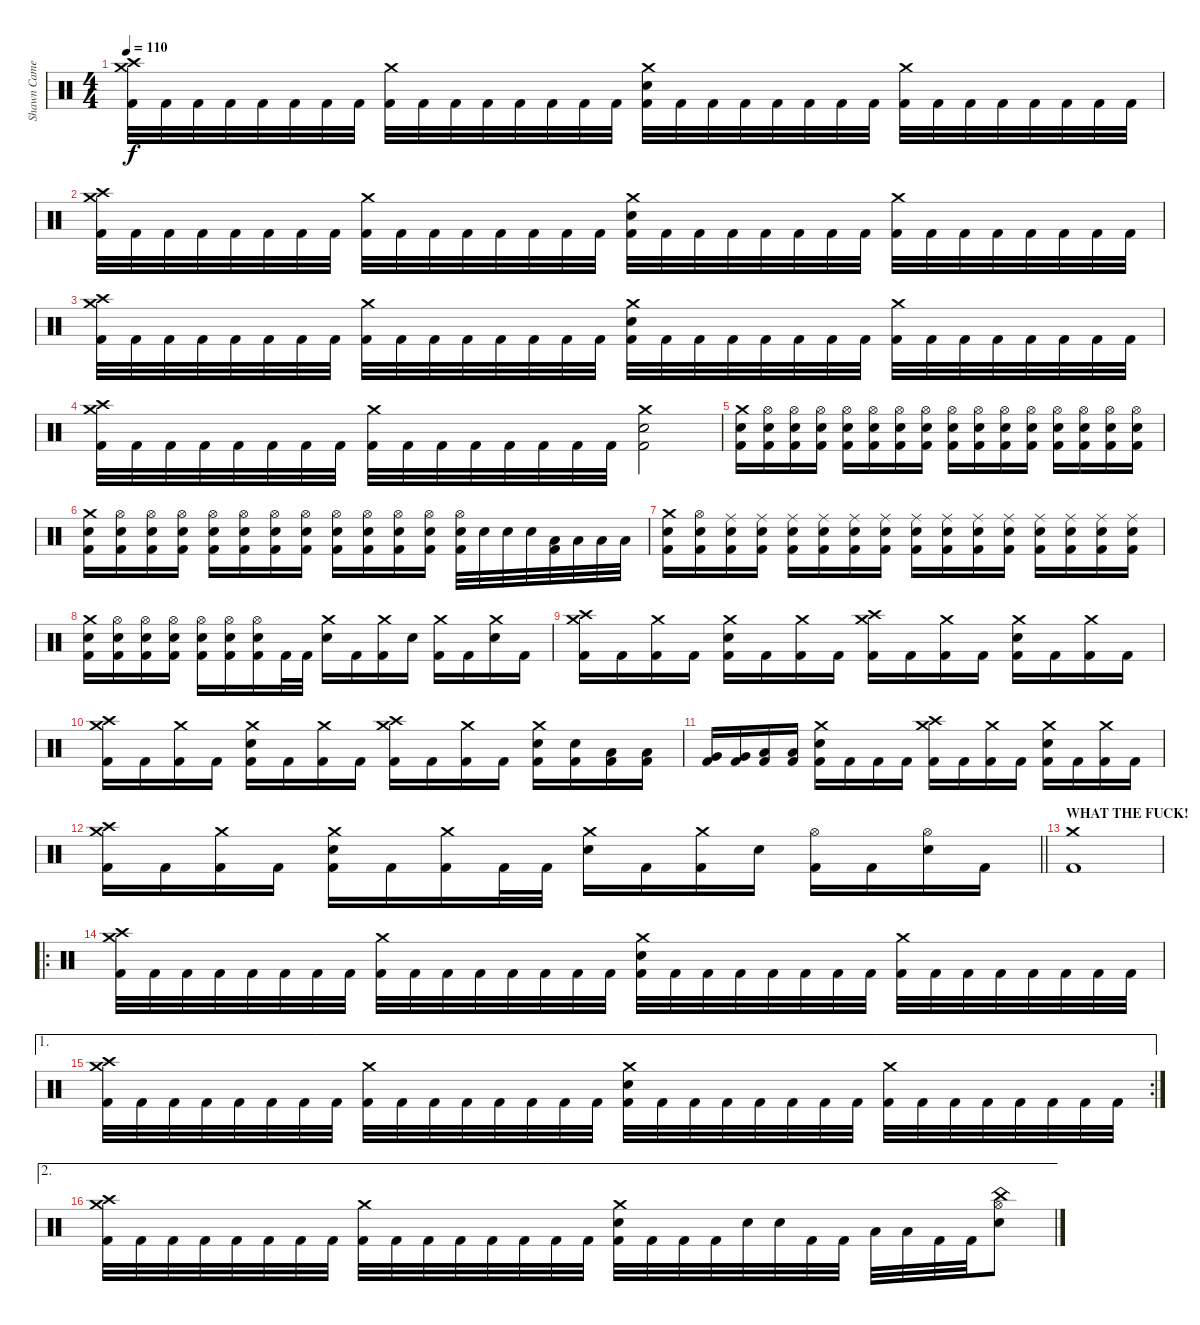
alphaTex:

\track ("Shawn Cameron" "Shawn Came") {instrument percussion}
\staff {score}
\articulation defaults
\ts (4 4)
\tempo 110
\clef neutral
\ks c
("Crash medium (hit)" "Crash high (hit)" "Kick (hit) 2").32{dy f} "Kick (hit) 2".32 "Kick (hit) 2".32 "Kick (hit) 2".32 "Kick (hit) 2".32 "Kick (hit) 2".32 "Kick (hit) 2".32 "Kick (hit) 2".32 ("Crash medium (hit)" "Kick (hit) 2").32 "Kick (hit) 2".32 "Kick (hit) 2".32 "Kick (hit) 2".32 "Kick (hit) 2".32 "Kick (hit) 2".32 "Kick (hit) 2".32 "Kick (hit) 2".32 ("Crash medium (hit)" "Electric Snare (hit)" "Kick (hit) 2").32 "Kick (hit) 2".32 "Kick (hit) 2".32 "Kick (hit) 2".32 "Kick (hit) 2".32 "Kick (hit) 2".32 "Kick (hit) 2".32 "Kick (hit) 2".32 ("Crash medium (hit)" "Kick (hit) 2").32 "Kick (hit) 2".32 "Kick (hit) 2".32 "Kick (hit) 2".32 "Kick (hit) 2".32 "Kick (hit) 2".32 "Kick (hit) 2".32 "Kick (hit) 2".32 |
("Crash medium (hit)" "Crash high (hit)" "Kick (hit) 2").32 "Kick (hit) 2".32 "Kick (hit) 2".32 "Kick (hit) 2".32 "Kick (hit) 2".32 "Kick (hit) 2".32 "Kick (hit) 2".32 "Kick (hit) 2".32 ("Crash medium (hit)" "Kick (hit) 2").32 "Kick (hit) 2".32 "Kick (hit) 2".32 "Kick (hit) 2".32 "Kick (hit) 2".32 "Kick (hit) 2".32 "Kick (hit) 2".32 "Kick (hit) 2".32 ("Crash medium (hit)" "Electric Snare (hit)" "Kick (hit) 2").32 "Kick (hit) 2".32 "Kick (hit) 2".32 "Kick (hit) 2".32 "Kick (hit) 2".32 "Kick (hit) 2".32 "Kick (hit) 2".32 "Kick (hit) 2".32 ("Crash medium (hit)" "Kick (hit) 2").32 "Kick (hit) 2".32 "Kick (hit) 2".32 "Kick (hit) 2".32 "Kick (hit) 2".32 "Kick (hit) 2".32 "Kick (hit) 2".32 "Kick (hit) 2".32 |
("Crash medium (hit)" "Crash high (hit)" "Kick (hit) 2").32 "Kick (hit) 2".32 "Kick (hit) 2".32 "Kick (hit) 2".32 "Kick (hit) 2".32 "Kick (hit) 2".32 "Kick (hit) 2".32 "Kick (hit) 2".32 ("Crash medium (hit)" "Kick (hit) 2").32 "Kick (hit) 2".32 "Kick (hit) 2".32 "Kick (hit) 2".32 "Kick (hit) 2".32 "Kick (hit) 2".32 "Kick (hit) 2".32 "Kick (hit) 2".32 ("Crash medium (hit)" "Electric Snare (hit)" "Kick (hit) 2").32 "Kick (hit) 2".32 "Kick (hit) 2".32 "Kick (hit) 2".32 "Kick (hit) 2".32 "Kick (hit) 2".32 "Kick (hit) 2".32 "Kick (hit) 2".32 ("Crash medium (hit)" "Kick (hit) 2").32 "Kick (hit) 2".32 "Kick (hit) 2".32 "Kick (hit) 2".32 "Kick (hit) 2".32 "Kick (hit) 2".32 "Kick (hit) 2".32 "Kick (hit) 2".32 |
("Crash medium (hit)" "Crash high (hit)" "Kick (hit) 2").32 "Kick (hit) 2".32 "Kick (hit) 2".32 "Kick (hit) 2".32 "Kick (hit) 2".32 "Kick (hit) 2".32 "Kick (hit) 2".32 "Kick (hit) 2".32 ("Crash medium (hit)" "Kick (hit) 2").32 "Kick (hit) 2".32 "Kick (hit) 2".32 "Kick (hit) 2".32 "Kick (hit) 2".32 "Kick (hit) 2".32 "Kick (hit) 2".32 "Kick (hit) 2".32 ("Crash medium (hit)" "Electric Snare (hit)" "Kick (hit) 2").2 |
("Crash medium (hit)" "Electric Snare (hit)" "Kick (hit) 2").16 ("Hi-Hat (open)" "Electric Snare (hit)" "Kick (hit) 2").16 ("Hi-Hat (open)" "Electric Snare (hit)" "Kick (hit) 2").16 ("Hi-Hat (open)" "Electric Snare (hit)" "Kick (hit) 2").16 ("Hi-Hat (open)" "Electric Snare (hit)" "Kick (hit) 2").16 ("Hi-Hat (open)" "Electric Snare (hit)" "Kick (hit) 2").16 ("Hi-Hat (open)" "Electric Snare (hit)" "Kick (hit) 2").16 ("Hi-Hat (open)" "Electric Snare (hit)" "Kick (hit) 2").16 ("Hi-Hat (open)" "Electric Snare (hit)" "Kick (hit) 2").16 ("Hi-Hat (open)" "Electric Snare (hit)" "Kick (hit) 2").16 ("Hi-Hat (open)" "Electric Snare (hit)" "Kick (hit) 2").16 ("Hi-Hat (open)" "Electric Snare (hit)" "Kick (hit) 2").16 ("Hi-Hat (open)" "Electric Snare (hit)" "Kick (hit) 2").16 ("Hi-Hat (open)" "Electric Snare (hit)" "Kick (hit) 2").16 ("Hi-Hat (open)" "Electric Snare (hit)" "Kick (hit) 2").16 ("Hi-Hat (open)" "Electric Snare (hit)" "Kick (hit) 2").16 |
("Crash medium (hit)" "Electric Snare (hit)" "Kick (hit) 2").16 ("Hi-Hat (open)" "Electric Snare (hit)" "Kick (hit) 2").16 ("Hi-Hat (open)" "Electric Snare (hit)" "Kick (hit) 2").16 ("Hi-Hat (open)" "Electric Snare (hit)" "Kick (hit) 2").16 ("Hi-Hat (open)" "Electric Snare (hit)" "Kick (hit) 2").16 ("Hi-Hat (open)" "Electric Snare (hit)" "Kick (hit) 2").16 ("Hi-Hat (open)" "Electric Snare (hit)" "Kick (hit) 2").16 ("Hi-Hat (open)" "Electric Snare (hit)" "Kick (hit) 2").16 ("Hi-Hat (open)" "Electric Snare (hit)" "Kick (hit) 2").16 ("Hi-Hat (open)" "Electric Snare (hit)" "Kick (hit) 2").16 ("Hi-Hat (open)" "Electric Snare (hit)" "Kick (hit) 2").16 ("Hi-Hat (open)" "Electric Snare (hit)" "Kick (hit) 2").16 ("Hi-Hat (open)" "Electric Snare (hit)" "Kick (hit) 2").32 "Electric Snare (hit)".32 "Electric Snare (hit)".32 "Electric Snare (hit)".32 ("Low Tom (hit)" "Kick (hit) 2").32 "Low Tom (hit)".32 "Low Tom (hit)".32 "Low Tom (hit)".32 |
("Crash medium (hit)" "Electric Snare (hit)" "Kick (hit) 2").16 ("Hi-Hat (open)" "Electric Snare (hit)" "Kick (hit) 2").16 ("Ride (middle)" "Electric Snare (hit)" "Kick (hit) 2").16 ("Ride (middle)" "Electric Snare (hit)" "Kick (hit) 2").16 ("Ride (middle)" "Electric Snare (hit)" "Kick (hit) 2").16 ("Ride (middle)" "Electric Snare (hit)" "Kick (hit) 2").16 ("Ride (middle)" "Electric Snare (hit)" "Kick (hit) 2").16 ("Ride (middle)" "Electric Snare (hit)" "Kick (hit) 2").16 ("Ride (middle)" "Electric Snare (hit)" "Kick (hit) 2").16 ("Ride (middle)" "Electric Snare (hit)" "Kick (hit) 2").16 ("Ride (middle)" "Electric Snare (hit)" "Kick (hit) 2").16 ("Ride (middle)" "Electric Snare (hit)" "Kick (hit) 2").16 ("Ride (middle)" "Electric Snare (hit)" "Kick (hit) 2").16 ("Ride (middle)" "Electric Snare (hit)" "Kick (hit) 2").16 ("Ride (middle)" "Electric Snare (hit)" "Kick (hit) 2").16 ("Ride (middle)" "Electric Snare (hit)" "Kick (hit) 2").16 |
("Crash medium (hit)" "Electric Snare (hit)" "Kick (hit) 2").16 ("Hi-Hat (open)" "Electric Snare (hit)" "Kick (hit) 2").16 ("Hi-Hat (open)" "Electric Snare (hit)" "Kick (hit) 2").16 ("Hi-Hat (open)" "Electric Snare (hit)" "Kick (hit) 2").16 ("Hi-Hat (open)" "Electric Snare (hit)" "Kick (hit) 2").16 ("Hi-Hat (open)" "Electric Snare (hit)" "Kick (hit) 2").16 ("Hi-Hat (open)" "Electric Snare (hit)" "Kick (hit) 2").16 "Kick (hit) 2".32 "Kick (hit) 2".32 ("Crash medium (hit)" "Electric Snare (hit)").16 "Kick (hit) 2".16 ("Crash medium (hit)" "Kick (hit) 2").16 "Electric Snare (hit)".16 ("Crash medium (hit)" "Kick (hit) 2").16 "Kick (hit) 2".16 ("Crash medium (hit)" "Electric Snare (hit)").16 "Kick (hit) 2".16 |
("Crash medium (hit)" "Crash high (hit)" "Kick (hit) 2").16 "Kick (hit) 2".16 ("Crash medium (hit)" "Kick (hit) 2").16 "Kick (hit) 2".16 ("Crash medium (hit)" "Electric Snare (hit)" "Kick (hit) 2").16 "Kick (hit) 2".16 ("Crash medium (hit)" "Kick (hit) 2").16 "Kick (hit) 2".16 ("Crash medium (hit)" "Crash high (hit)" "Kick (hit) 2").16 "Kick (hit) 2".16 ("Crash medium (hit)" "Kick (hit) 2").16 "Kick (hit) 2".16 ("Crash medium (hit)" "Electric Snare (hit)" "Kick (hit) 2").16 "Kick (hit) 2".16 ("Crash medium (hit)" "Kick (hit) 2").16 "Kick (hit) 2".16 |
("Crash medium (hit)" "Crash high (hit)" "Kick (hit) 2").16 "Kick (hit) 2".16 ("Crash medium (hit)" "Kick (hit) 2").16 "Kick (hit) 2".16 ("Crash medium (hit)" "Electric Snare (hit)" "Kick (hit) 2").16 "Kick (hit) 2".16 ("Crash medium (hit)" "Kick (hit) 2").16 "Kick (hit) 2".16 ("Crash medium (hit)" "Crash high (hit)" "Kick (hit) 2").16 "Kick (hit) 2".16 ("Crash medium (hit)" "Kick (hit) 2").16 "Kick (hit) 2".16 ("Crash medium (hit)" "Electric Snare (hit)" "Kick (hit) 2").16 ("Electric Snare (hit)" "Kick (hit) 2").16 ("Low Tom (hit)" "Kick (hit) 2").16 ("Low Tom (hit)" "Kick (hit) 2").16 |
("Very Low Tom (hit)" "Kick (hit) 2").16 ("Very Low Tom (hit)" "Kick (hit) 2").16 ("Low Floor Tom (hit)" "Kick (hit) 2").16 ("Low Floor Tom (hit)" "Kick (hit) 2").16 ("Crash medium (hit)" "Electric Snare (hit)" "Kick (hit) 2").16 "Kick (hit) 2".16 "Kick (hit) 2".16 "Kick (hit) 2".16 ("Crash medium (hit)" "Crash high (hit)" "Kick (hit) 2").16 "Kick (hit) 2".16 ("Crash medium (hit)" "Kick (hit) 2").16 "Kick (hit) 2".16 ("Crash medium (hit)" "Electric Snare (hit)" "Kick (hit) 2").16 "Kick (hit) 2".16 ("Crash medium (hit)" "Kick (hit) 2").16 "Kick (hit) 2".16 |
\barLineRight lightlight
("Crash medium (hit)" "Crash high (hit)" "Kick (hit) 2").16 "Kick (hit) 2".16 ("Crash medium (hit)" "Kick (hit) 2").16 "Kick (hit) 2".16 ("Crash medium (hit)" "Electric Snare (hit)" "Kick (hit) 2").16 "Kick (hit) 2".16 ("Crash medium (hit)" "Kick (hit) 2").16 "Kick (hit) 2".32 "Kick (hit) 2".32 ("Crash medium (hit)" "Electric Snare (hit)").16 "Kick (hit) 2".16 ("Crash medium (hit)" "Kick (hit) 2").16 "Electric Snare (hit)".16 ("Hi-Hat (open)" "Kick (hit) 2").16 "Kick (hit) 2".16 ("Hi-Hat (open)" "Electric Snare (hit)").16 "Kick (hit) 2".16 |
\section ("" "WHAT THE FUCK!")
("Kick (hit) 2" "Crash medium (hit)").1 |
\ro
("Crash medium (hit)" "Crash high (hit)" "Kick (hit) 2").32 "Kick (hit) 2".32 "Kick (hit) 2".32 "Kick (hit) 2".32 "Kick (hit) 2".32 "Kick (hit) 2".32 "Kick (hit) 2".32 "Kick (hit) 2".32 ("Crash medium (hit)" "Kick (hit) 2").32 "Kick (hit) 2".32 "Kick (hit) 2".32 "Kick (hit) 2".32 "Kick (hit) 2".32 "Kick (hit) 2".32 "Kick (hit) 2".32 "Kick (hit) 2".32 ("Crash medium (hit)" "Electric Snare (hit)" "Kick (hit) 2").32 "Kick (hit) 2".32 "Kick (hit) 2".32 "Kick (hit) 2".32 "Kick (hit) 2".32 "Kick (hit) 2".32 "Kick (hit) 2".32 "Kick (hit) 2".32 ("Crash medium (hit)" "Kick (hit) 2").32 "Kick (hit) 2".32 "Kick (hit) 2".32 "Kick (hit) 2".32 "Kick (hit) 2".32 "Kick (hit) 2".32 "Kick (hit) 2".32 "Kick (hit) 2".32 |
\ae 1
\rc 2
("Crash medium (hit)" "Crash high (hit)" "Kick (hit) 2").32 "Kick (hit) 2".32 "Kick (hit) 2".32 "Kick (hit) 2".32 "Kick (hit) 2".32 "Kick (hit) 2".32 "Kick (hit) 2".32 "Kick (hit) 2".32 ("Crash medium (hit)" "Kick (hit) 2").32 "Kick (hit) 2".32 "Kick (hit) 2".32 "Kick (hit) 2".32 "Kick (hit) 2".32 "Kick (hit) 2".32 "Kick (hit) 2".32 "Kick (hit) 2".32 ("Crash medium (hit)" "Electric Snare (hit)" "Kick (hit) 2").32 "Kick (hit) 2".32 "Kick (hit) 2".32 "Kick (hit) 2".32 "Kick (hit) 2".32 "Kick (hit) 2".32 "Kick (hit) 2".32 "Kick (hit) 2".32 ("Crash medium (hit)" "Kick (hit) 2").32 "Kick (hit) 2".32 "Kick (hit) 2".32 "Kick (hit) 2".32 "Kick (hit) 2".32 "Kick (hit) 2".32 "Kick (hit) 2".32 "Kick (hit) 2".32 |
\ae 2
("Crash medium (hit)" "Crash high (hit)" "Kick (hit) 2").32 "Kick (hit) 2".32 "Kick (hit) 2".32 "Kick (hit) 2".32 "Kick (hit) 2".32 "Kick (hit) 2".32 "Kick (hit) 2".32 "Kick (hit) 2".32 ("Crash medium (hit)" "Kick (hit) 2").32 "Kick (hit) 2".32 "Kick (hit) 2".32 "Kick (hit) 2".32 "Kick (hit) 2".32 "Kick (hit) 2".32 "Kick (hit) 2".32 "Kick (hit) 2".32 ("Crash medium (hit)" "Electric Snare (hit)" "Kick (hit) 2").32 "Kick (hit) 2".32 "Kick (hit) 2".32 "Kick (hit) 2".32 "Electric Snare (hit)".32 "Electric Snare (hit)".32 "Kick (hit) 2".32 "Kick (hit) 2".32 "Low Tom (hit)".32 "Low Tom (hit)".32 "Kick (hit) 2".32 "Kick (hit) 2".32 ("China (hit)" "Hi-Hat (open)" "Electric Snare (hit)").8
